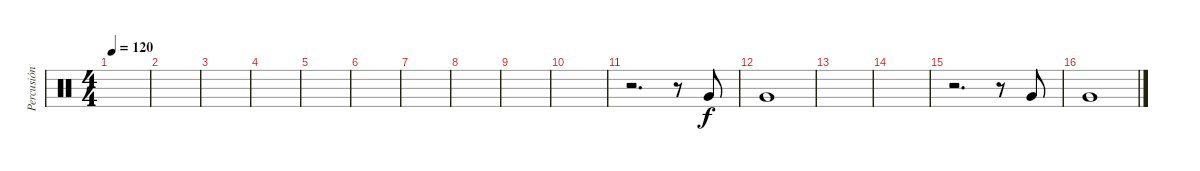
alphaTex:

\track ("Percusión" "Percusión") {instrument percussion}
\staff {score}
\articulation defaults
\ts (4 4)
\tempo 120
\clef neutral
\ks c
|
|
|
|
|
|
|
|
|
|
r.2{d} r.8 "Very Low Tom (hit)".8 |
"Very Low Tom (hit)".1 |
|
|
r.2{d} r.8 "Very Low Tom (hit)".8 |
"Very Low Tom (hit)".1
